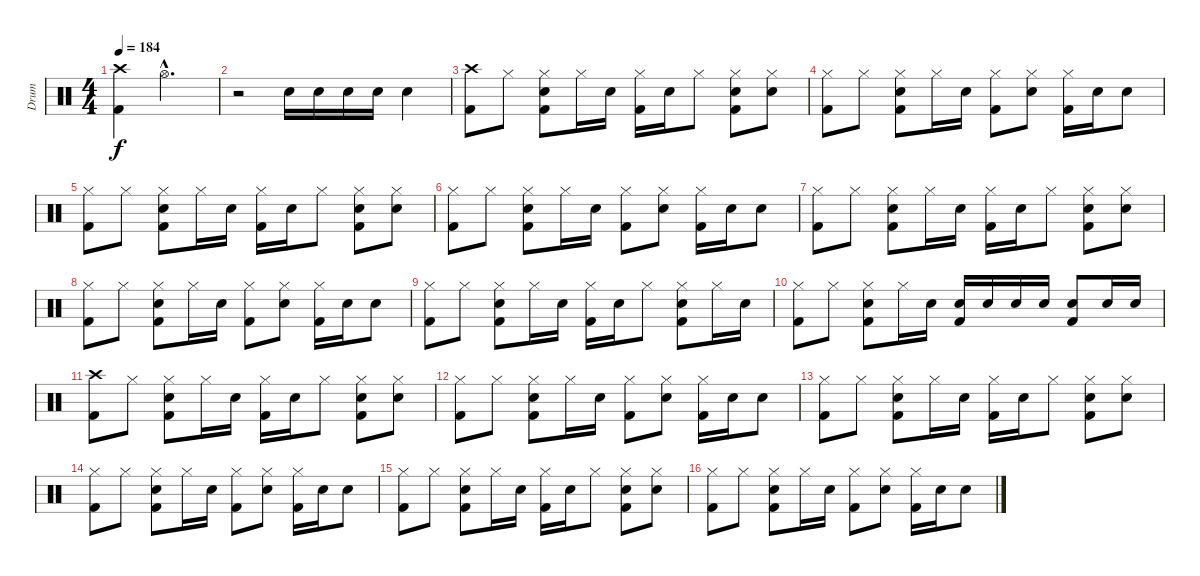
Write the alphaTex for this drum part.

\track ("Drum" "Drum") {instrument percussion}
\staff {score}
\articulation defaults
\ts (4 4)
\tempo 184
\clef neutral
\ks c
("Crash high (hit)" "Kick (hit) 2").4{dy f} "Hi-Hat (open)"{hac}.2{d} |
r.2 "Electric Snare (hit)".16 "Electric Snare (hit)".16 "Electric Snare (hit)".16 "Electric Snare (hit)".16 "Electric Snare (hit)".4 |
("Crash high (hit)" "Kick (hit) 2").8 "Hi-Hat (closed)".8 ("Hi-Hat (closed)" "Electric Snare (hit)" "Kick (hit) 2").8 "Hi-Hat (closed)".16 "Electric Snare (hit)".16 ("Hi-Hat (closed)" "Kick (hit) 2").16 "Electric Snare (hit)".16 "Hi-Hat (closed)".8 ("Hi-Hat (closed)" "Electric Snare (hit)" "Kick (hit) 2").8 ("Hi-Hat (closed)" "Electric Snare (hit)").8 |
("Hi-Hat (closed)" "Kick (hit) 2").8 "Hi-Hat (closed)".8 ("Hi-Hat (closed)" "Electric Snare (hit)" "Kick (hit) 2").8 "Hi-Hat (closed)".16 "Electric Snare (hit)".16 ("Hi-Hat (closed)" "Kick (hit) 2").8 ("Hi-Hat (closed)" "Electric Snare (hit)").8 ("Hi-Hat (closed)" "Kick (hit) 2").16 "Electric Snare (hit)".16 "Electric Snare (hit)".8 |
("Hi-Hat (closed)" "Kick (hit) 2").8 "Hi-Hat (closed)".8 ("Hi-Hat (closed)" "Electric Snare (hit)" "Kick (hit) 2").8 "Hi-Hat (closed)".16 "Electric Snare (hit)".16 ("Hi-Hat (closed)" "Kick (hit) 2").16 "Electric Snare (hit)".16 "Hi-Hat (closed)".8 ("Hi-Hat (closed)" "Electric Snare (hit)" "Kick (hit) 2").8 ("Hi-Hat (closed)" "Electric Snare (hit)").8 |
("Hi-Hat (closed)" "Kick (hit) 2").8 "Hi-Hat (closed)".8 ("Hi-Hat (closed)" "Electric Snare (hit)" "Kick (hit) 2").8 "Hi-Hat (closed)".16 "Electric Snare (hit)".16 ("Hi-Hat (closed)" "Kick (hit) 2").8 ("Hi-Hat (closed)" "Electric Snare (hit)").8 ("Hi-Hat (closed)" "Kick (hit) 2").16 "Electric Snare (hit)".16 "Electric Snare (hit)".8 |
("Hi-Hat (closed)" "Kick (hit) 2").8 "Hi-Hat (closed)".8 ("Hi-Hat (closed)" "Electric Snare (hit)" "Kick (hit) 2").8 "Hi-Hat (closed)".16 "Electric Snare (hit)".16 ("Hi-Hat (closed)" "Kick (hit) 2").16 "Electric Snare (hit)".16 "Hi-Hat (closed)".8 ("Hi-Hat (closed)" "Electric Snare (hit)" "Kick (hit) 2").8 ("Hi-Hat (closed)" "Electric Snare (hit)").8 |
("Hi-Hat (closed)" "Kick (hit) 2").8 "Hi-Hat (closed)".8 ("Hi-Hat (closed)" "Electric Snare (hit)" "Kick (hit) 2").8 "Hi-Hat (closed)".16 "Electric Snare (hit)".16 ("Hi-Hat (closed)" "Kick (hit) 2").8 ("Hi-Hat (closed)" "Electric Snare (hit)").8 ("Hi-Hat (closed)" "Kick (hit) 2").16 "Electric Snare (hit)".16 "Electric Snare (hit)".8 |
("Hi-Hat (closed)" "Kick (hit) 2").8 "Hi-Hat (closed)".8 ("Hi-Hat (closed)" "Electric Snare (hit)" "Kick (hit) 2").8 "Hi-Hat (closed)".16 "Electric Snare (hit)".16 ("Hi-Hat (closed)" "Kick (hit) 2").16 "Electric Snare (hit)".16 "Hi-Hat (closed)".8 ("Hi-Hat (closed)" "Electric Snare (hit)" "Kick (hit) 2").8 "Hi-Hat (closed)".16 "Electric Snare (hit)".16 |
("Hi-Hat (closed)" "Kick (hit) 2").8 "Hi-Hat (closed)".8 ("Hi-Hat (closed)" "Electric Snare (hit)" "Kick (hit) 2").8 "Hi-Hat (closed)".16 "Electric Snare (hit)".16 ("Electric Snare (hit)" "Kick (hit) 2").16 "Electric Snare (hit)".16 "Electric Snare (hit)".16 "Electric Snare (hit)".16 ("Electric Snare (hit)" "Kick (hit) 2").8 "Electric Snare (hit)".16 "Electric Snare (hit)".16 |
("Crash high (hit)" "Kick (hit) 2").8 "Hi-Hat (closed)".8 ("Hi-Hat (closed)" "Electric Snare (hit)" "Kick (hit) 2").8 "Hi-Hat (closed)".16 "Electric Snare (hit)".16 ("Hi-Hat (closed)" "Kick (hit) 2").16 "Electric Snare (hit)".16 "Hi-Hat (closed)".8 ("Hi-Hat (closed)" "Electric Snare (hit)" "Kick (hit) 2").8 ("Hi-Hat (closed)" "Electric Snare (hit)").8 |
("Hi-Hat (closed)" "Kick (hit) 2").8 "Hi-Hat (closed)".8 ("Hi-Hat (closed)" "Electric Snare (hit)" "Kick (hit) 2").8 "Hi-Hat (closed)".16 "Electric Snare (hit)".16 ("Hi-Hat (closed)" "Kick (hit) 2").8 ("Hi-Hat (closed)" "Electric Snare (hit)").8 ("Hi-Hat (closed)" "Kick (hit) 2").16 "Electric Snare (hit)".16 "Electric Snare (hit)".8 |
("Hi-Hat (closed)" "Kick (hit) 2").8 "Hi-Hat (closed)".8 ("Hi-Hat (closed)" "Electric Snare (hit)" "Kick (hit) 2").8 "Hi-Hat (closed)".16 "Electric Snare (hit)".16 ("Hi-Hat (closed)" "Kick (hit) 2").16 "Electric Snare (hit)".16 "Hi-Hat (closed)".8 ("Hi-Hat (closed)" "Electric Snare (hit)" "Kick (hit) 2").8 ("Hi-Hat (closed)" "Electric Snare (hit)").8 |
("Hi-Hat (closed)" "Kick (hit) 2").8 "Hi-Hat (closed)".8 ("Hi-Hat (closed)" "Electric Snare (hit)" "Kick (hit) 2").8 "Hi-Hat (closed)".16 "Electric Snare (hit)".16 ("Hi-Hat (closed)" "Kick (hit) 2").8 ("Hi-Hat (closed)" "Electric Snare (hit)").8 ("Hi-Hat (closed)" "Kick (hit) 2").16 "Electric Snare (hit)".16 "Electric Snare (hit)".8 |
("Hi-Hat (closed)" "Kick (hit) 2").8 "Hi-Hat (closed)".8 ("Hi-Hat (closed)" "Electric Snare (hit)" "Kick (hit) 2").8 "Hi-Hat (closed)".16 "Electric Snare (hit)".16 ("Hi-Hat (closed)" "Kick (hit) 2").16 "Electric Snare (hit)".16 "Hi-Hat (closed)".8 ("Hi-Hat (closed)" "Electric Snare (hit)" "Kick (hit) 2").8 ("Hi-Hat (closed)" "Electric Snare (hit)").8 |
("Hi-Hat (closed)" "Kick (hit) 2").8 "Hi-Hat (closed)".8 ("Hi-Hat (closed)" "Electric Snare (hit)" "Kick (hit) 2").8 "Hi-Hat (closed)".16 "Electric Snare (hit)".16 ("Hi-Hat (closed)" "Kick (hit) 2").8 ("Hi-Hat (closed)" "Electric Snare (hit)").8 ("Hi-Hat (closed)" "Kick (hit) 2").16 "Electric Snare (hit)".16 "Electric Snare (hit)".8
